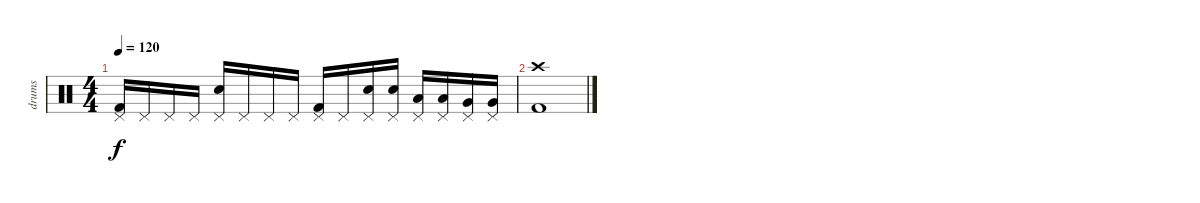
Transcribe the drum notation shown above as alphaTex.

\track ("drums" "drums") {instrument percussion}
\staff {score}
\articulation defaults
\ts (4 4)
\tempo 120
\clef neutral
\ks c
("Kick (hit) 2" "Pedal Hi-Hat (hit)").16{dy f} "Pedal Hi-Hat (hit)".16 "Pedal Hi-Hat (hit)".16 "Pedal Hi-Hat (hit)".16 ("Electric Snare (hit)" "Pedal Hi-Hat (hit)").16 "Pedal Hi-Hat (hit)".16 "Pedal Hi-Hat (hit)".16 "Pedal Hi-Hat (hit)".16 ("Kick (hit) 2" "Pedal Hi-Hat (hit)").16 "Pedal Hi-Hat (hit)".16 ("Electric Snare (hit)" "Pedal Hi-Hat (hit)").16 ("Electric Snare (hit)" "Pedal Hi-Hat (hit)").16 ("Low Tom (hit)" "Pedal Hi-Hat (hit)").16 ("Low Tom (hit)" "Pedal Hi-Hat (hit)").16 ("Very Low Tom (hit)" "Pedal Hi-Hat (hit)").16 ("Very Low Tom (hit)" "Pedal Hi-Hat (hit)").16 |
("Kick (hit) 2" "Crash high (hit)").1
